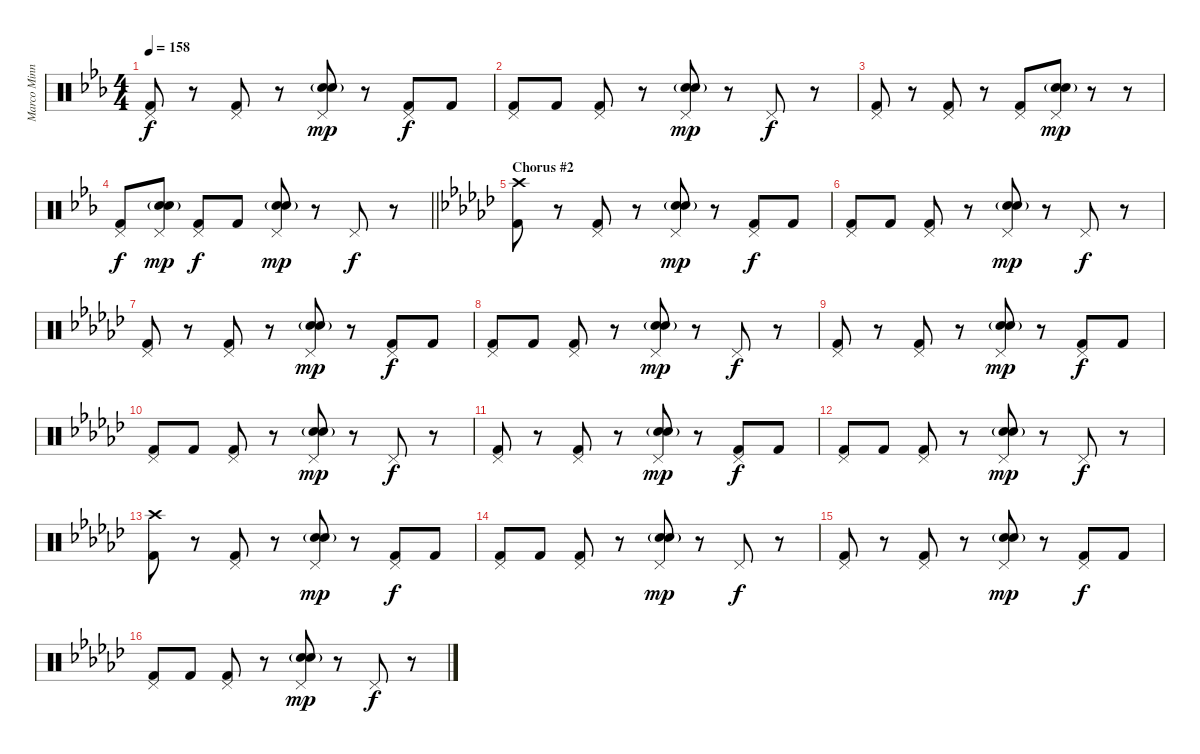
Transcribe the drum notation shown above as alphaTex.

\track ("Marco Minnemann (Drums)" "Marco Minn") {instrument percussion}
\staff {score}
\articulation defaults
\ts (4 4)
\tempo 158
\clef neutral
\ks eb
("Pedal Hi-Hat (hit)" "Kick (hit) 2").8{dy f} r.8 ("Pedal Hi-Hat (hit)" "Kick (hit) 2").8 r.8 ("Pedal Hi-Hat (hit)" "Snare (hit) 2"{g} "Electric Snare (hit)").8{dy mp} r.8 ("Pedal Hi-Hat (hit)" "Kick (hit) 2").8{dy f} "Kick (hit) 2".8 |
("Pedal Hi-Hat (hit)" "Kick (hit) 2").8 "Kick (hit) 2".8 ("Pedal Hi-Hat (hit)" "Kick (hit) 2").8 r.8 ("Pedal Hi-Hat (hit)" "Snare (hit) 2"{g} "Electric Snare (hit)").8{dy mp} r.8 "Pedal Hi-Hat (hit)".8{dy f} r.8 |
("Pedal Hi-Hat (hit)" "Kick (hit) 2").8 r.8 ("Pedal Hi-Hat (hit)" "Kick (hit) 2").8 r.8 ("Pedal Hi-Hat (hit)" "Kick (hit) 2").8 ("Pedal Hi-Hat (hit)" "Snare (hit) 2"{g} "Electric Snare (hit)").8{dy mp} r.8 r.8 |
\barLineRight lightlight
("Pedal Hi-Hat (hit)" "Kick (hit) 2").8{dy f} ("Pedal Hi-Hat (hit)" "Snare (hit) 2"{g} "Electric Snare (hit)").8{dy mp} ("Pedal Hi-Hat (hit)" "Kick (hit) 2").8{dy f} "Kick (hit) 2".8 ("Pedal Hi-Hat (hit)" "Snare (hit) 2"{g} "Electric Snare (hit)").8{dy mp} r.8 "Pedal Hi-Hat (hit)".8{dy f} r.8 |
\section ("" "Chorus #2")
\ks gb
("Crash high (hit)" "Kick (hit) 2").8 r.8 ("Pedal Hi-Hat (hit)" "Kick (hit) 2").8 r.8 ("Pedal Hi-Hat (hit)" "Snare (hit) 2"{g} "Electric Snare (hit)").8{dy mp} r.8 ("Pedal Hi-Hat (hit)" "Kick (hit) 2").8{dy f} "Kick (hit) 2".8 |
("Pedal Hi-Hat (hit)" "Kick (hit) 2").8 "Kick (hit) 2".8 ("Pedal Hi-Hat (hit)" "Kick (hit) 2").8 r.8 ("Pedal Hi-Hat (hit)" "Snare (hit) 2"{g} "Electric Snare (hit)").8{dy mp} r.8 "Pedal Hi-Hat (hit)".8{dy f} r.8 |
("Pedal Hi-Hat (hit)" "Kick (hit) 2").8 r.8 ("Pedal Hi-Hat (hit)" "Kick (hit) 2").8 r.8 ("Pedal Hi-Hat (hit)" "Snare (hit) 2"{g} "Electric Snare (hit)").8{dy mp} r.8 ("Pedal Hi-Hat (hit)" "Kick (hit) 2").8{dy f} "Kick (hit) 2".8 |
("Pedal Hi-Hat (hit)" "Kick (hit) 2").8 "Kick (hit) 2".8 ("Pedal Hi-Hat (hit)" "Kick (hit) 2").8 r.8 ("Pedal Hi-Hat (hit)" "Snare (hit) 2"{g} "Electric Snare (hit)").8{dy mp} r.8 "Pedal Hi-Hat (hit)".8{dy f} r.8 |
("Pedal Hi-Hat (hit)" "Kick (hit) 2").8 r.8 ("Pedal Hi-Hat (hit)" "Kick (hit) 2").8 r.8 ("Pedal Hi-Hat (hit)" "Snare (hit) 2"{g} "Electric Snare (hit)").8{dy mp} r.8 ("Pedal Hi-Hat (hit)" "Kick (hit) 2").8{dy f} "Kick (hit) 2".8 |
("Pedal Hi-Hat (hit)" "Kick (hit) 2").8 "Kick (hit) 2".8 ("Pedal Hi-Hat (hit)" "Kick (hit) 2").8 r.8 ("Pedal Hi-Hat (hit)" "Snare (hit) 2"{g} "Electric Snare (hit)").8{dy mp} r.8 "Pedal Hi-Hat (hit)".8{dy f} r.8 |
("Pedal Hi-Hat (hit)" "Kick (hit) 2").8 r.8 ("Pedal Hi-Hat (hit)" "Kick (hit) 2").8 r.8 ("Pedal Hi-Hat (hit)" "Snare (hit) 2"{g} "Electric Snare (hit)").8{dy mp} r.8 ("Pedal Hi-Hat (hit)" "Kick (hit) 2").8{dy f} "Kick (hit) 2".8 |
("Pedal Hi-Hat (hit)" "Kick (hit) 2").8 "Kick (hit) 2".8 ("Pedal Hi-Hat (hit)" "Kick (hit) 2").8 r.8 ("Pedal Hi-Hat (hit)" "Snare (hit) 2"{g} "Electric Snare (hit)").8{dy mp} r.8 "Pedal Hi-Hat (hit)".8{dy f} r.8 |
("Crash high (hit)" "Kick (hit) 2").8 r.8 ("Pedal Hi-Hat (hit)" "Kick (hit) 2").8 r.8 ("Pedal Hi-Hat (hit)" "Snare (hit) 2"{g} "Electric Snare (hit)").8{dy mp} r.8 ("Pedal Hi-Hat (hit)" "Kick (hit) 2").8{dy f} "Kick (hit) 2".8 |
("Pedal Hi-Hat (hit)" "Kick (hit) 2").8 "Kick (hit) 2".8 ("Pedal Hi-Hat (hit)" "Kick (hit) 2").8 r.8 ("Pedal Hi-Hat (hit)" "Snare (hit) 2"{g} "Electric Snare (hit)").8{dy mp} r.8 "Pedal Hi-Hat (hit)".8{dy f} r.8 |
("Pedal Hi-Hat (hit)" "Kick (hit) 2").8 r.8 ("Pedal Hi-Hat (hit)" "Kick (hit) 2").8 r.8 ("Pedal Hi-Hat (hit)" "Snare (hit) 2"{g} "Electric Snare (hit)").8{dy mp} r.8 ("Pedal Hi-Hat (hit)" "Kick (hit) 2").8{dy f} "Kick (hit) 2".8 |
("Pedal Hi-Hat (hit)" "Kick (hit) 2").8 "Kick (hit) 2".8 ("Pedal Hi-Hat (hit)" "Kick (hit) 2").8 r.8 ("Pedal Hi-Hat (hit)" "Snare (hit) 2"{g} "Electric Snare (hit)").8{dy mp} r.8 "Pedal Hi-Hat (hit)".8{dy f} r.8
